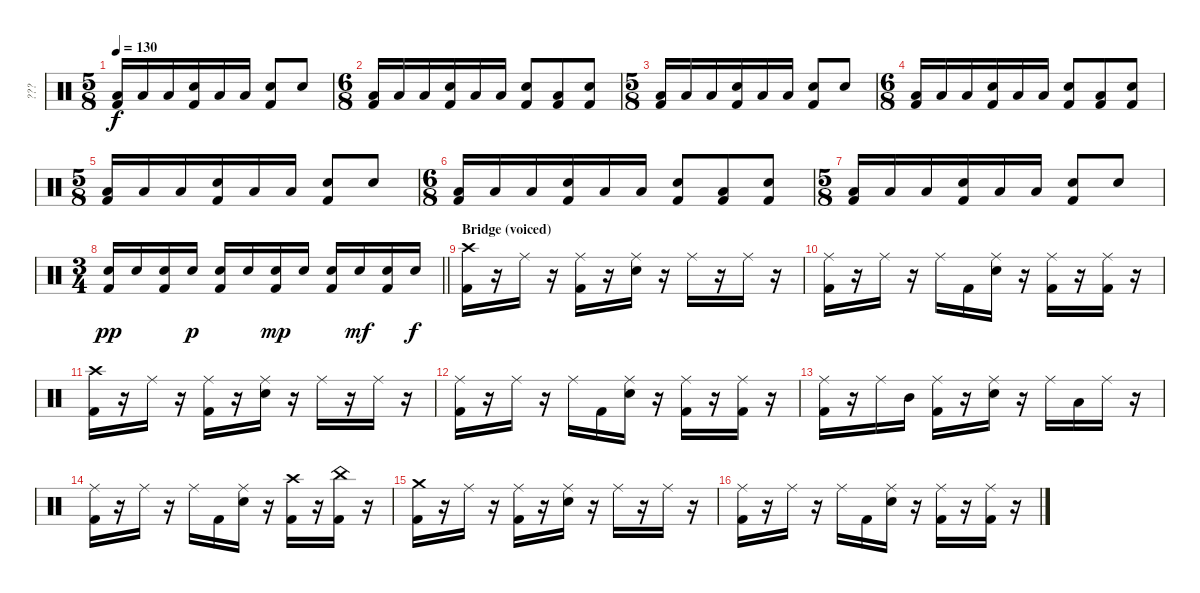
\track ("???" "???") {instrument percussion}
\staff {score}
\articulation defaults
\ts (5 8)
\tempo 130
\clef neutral
\ks c
("Low Tom (hit)" "Kick (hit) 2").16{dy f} "Low Tom (hit)".16 "Low Tom (hit)".16 ("Electric Snare (hit)" "Kick (hit) 2").16 "Low Tom (hit)".16 "Low Tom (hit)".16 ("Electric Snare (hit)" "Kick (hit) 2").8 "Electric Snare (hit)".8 |
\ts (6 8)
("Low Tom (hit)" "Kick (hit) 2").16 "Low Tom (hit)".16 "Low Tom (hit)".16 ("Electric Snare (hit)" "Kick (hit) 2").16 "Low Tom (hit)".16 "Low Tom (hit)".16 ("Electric Snare (hit)" "Kick (hit) 2").8 ("Low Tom (hit)" "Kick (hit) 2").8 ("Electric Snare (hit)" "Kick (hit) 2").8 |
\ts (5 8)
("Low Tom (hit)" "Kick (hit) 2").16 "Low Tom (hit)".16 "Low Tom (hit)".16 ("Electric Snare (hit)" "Kick (hit) 2").16 "Low Tom (hit)".16 "Low Tom (hit)".16 ("Electric Snare (hit)" "Kick (hit) 2").8 "Electric Snare (hit)".8 |
\ts (6 8)
("Low Tom (hit)" "Kick (hit) 2").16 "Low Tom (hit)".16 "Low Tom (hit)".16 ("Electric Snare (hit)" "Kick (hit) 2").16 "Low Tom (hit)".16 "Low Tom (hit)".16 ("Electric Snare (hit)" "Kick (hit) 2").8 ("Low Tom (hit)" "Kick (hit) 2").8 ("Electric Snare (hit)" "Kick (hit) 2").8 |
\ts (5 8)
("Low Tom (hit)" "Kick (hit) 2").16 "Low Tom (hit)".16 "Low Tom (hit)".16 ("Electric Snare (hit)" "Kick (hit) 2").16 "Low Tom (hit)".16 "Low Tom (hit)".16 ("Electric Snare (hit)" "Kick (hit) 2").8 "Electric Snare (hit)".8 |
\ts (6 8)
("Low Tom (hit)" "Kick (hit) 2").16 "Low Tom (hit)".16 "Low Tom (hit)".16 ("Electric Snare (hit)" "Kick (hit) 2").16 "Low Tom (hit)".16 "Low Tom (hit)".16 ("Electric Snare (hit)" "Kick (hit) 2").8 ("Low Tom (hit)" "Kick (hit) 2").8 ("Electric Snare (hit)" "Kick (hit) 2").8 |
\ts (5 8)
("Low Tom (hit)" "Kick (hit) 2").16 "Low Tom (hit)".16 "Low Tom (hit)".16 ("Electric Snare (hit)" "Kick (hit) 2").16 "Low Tom (hit)".16 "Low Tom (hit)".16 ("Electric Snare (hit)" "Kick (hit) 2").8 "Electric Snare (hit)".8 |
\ts (3 4)
\barLineRight lightlight
("Electric Snare (hit)" "Kick (hit) 2").16{dy pp} "Electric Snare (hit)".16 ("Electric Snare (hit)" "Kick (hit) 2").16 "Electric Snare (hit)".16{dy p} ("Electric Snare (hit)" "Kick (hit) 2").16 "Electric Snare (hit)".16 ("Electric Snare (hit)" "Kick (hit) 2").16{dy mp} "Electric Snare (hit)".16 ("Electric Snare (hit)" "Kick (hit) 2").16 "Electric Snare (hit)".16{dy mf} ("Electric Snare (hit)" "Kick (hit) 2").16 "Electric Snare (hit)".16{dy f} |
\section ("" "Bridge (voiced)")
("Crash high (hit)" "Kick (hit) 2").16 r.16 "Ride (middle)".16 r.16 ("Ride (middle)" "Kick (hit) 2").16 r.16 ("Ride (middle)" "Electric Snare (hit)").16 r.16 "Ride (middle)".16 r.16 "Ride (middle)".16 r.16 |
("Ride (middle)" "Kick (hit) 2").16 r.16 "Ride (middle)".16 r.16 "Ride (middle)".16 "Kick (hit) 2".16 ("Ride (middle)" "Electric Snare (hit)").16 r.16 ("Ride (middle)" "Kick (hit) 2").16 r.16 ("Ride (middle)" "Kick (hit) 2").16 r.16 |
("Crash high (hit)" "Kick (hit) 2").16 r.16 "Ride (middle)".16 r.16 ("Ride (middle)" "Kick (hit) 2").16 r.16 ("Ride (middle)" "Electric Snare (hit)").16 r.16 "Ride (middle)".16 r.16 "Ride (middle)".16 r.16 |
("Ride (middle)" "Kick (hit) 2").16 r.16 "Ride (middle)".16 r.16 "Ride (middle)".16 "Kick (hit) 2".16 ("Ride (middle)" "Electric Snare (hit)").16 r.16 ("Ride (middle)" "Kick (hit) 2").16 r.16 ("Ride (middle)" "Kick (hit) 2").16 r.16 |
("Ride (middle)" "Kick (hit) 2").16 r.16 "Ride (middle)".16 "Mid Tom (hit)".16 ("Ride (middle)" "Kick (hit) 2").16 r.16 ("Ride (middle)" "Electric Snare (hit)").16 r.16 "Ride (middle)".16 "Low Tom (hit)".16 "Ride (middle)".16 r.16 |
("Ride (middle)" "Kick (hit) 2").16 r.16 "Ride (middle)".16 r.16 "Ride (middle)".16 "Kick (hit) 2".16 ("Ride (middle)" "Electric Snare (hit)").16 r.16 ("Crash high (hit)" "Kick (hit) 2").16 r.16 ("China (hit)" "Kick (hit) 2").16 r.16 |
("Crash medium (hit)" "Kick (hit) 2").16 r.16 "Ride (middle)".16 r.16 ("Ride (middle)" "Kick (hit) 2").16 r.16 ("Ride (middle)" "Electric Snare (hit)").16 r.16 "Ride (middle)".16 r.16 "Ride (middle)".16 r.16 |
("Ride (middle)" "Kick (hit) 2").16 r.16 "Ride (middle)".16 r.16 "Ride (middle)".16 "Kick (hit) 2".16 ("Ride (middle)" "Electric Snare (hit)").16 r.16 ("Ride (middle)" "Kick (hit) 2").16 r.16 ("Ride (middle)" "Kick (hit) 2").16 r.16
